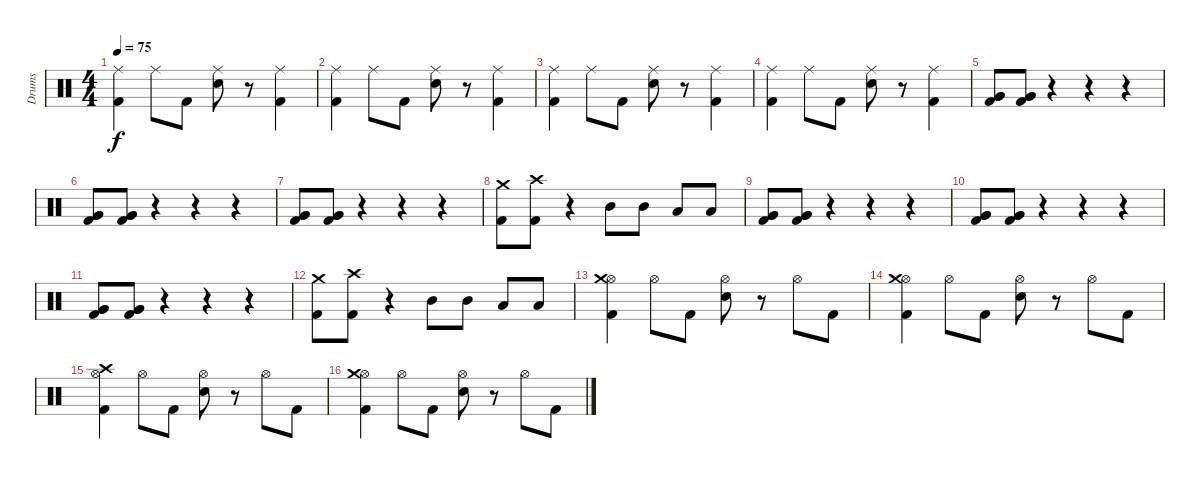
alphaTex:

\track ("Drums" "Drums") {instrument percussion}
\staff {score}
\articulation defaults
\ts (4 4)
\tempo 75
\clef neutral
\ks c
("Ride (middle)" "Kick (hit) 2").4{dy f} "Ride (middle)".8 "Kick (hit) 2".8 ("Ride (middle)" "Snare (hit) 2").8 r.8 ("Ride (middle)" "Kick (hit) 2").4 |
("Ride (middle)" "Kick (hit) 2").4 "Ride (middle)".8 "Kick (hit) 2".8 ("Ride (middle)" "Snare (hit) 2").8 r.8 ("Ride (middle)" "Kick (hit) 2").4 |
("Ride (middle)" "Kick (hit) 2").4 "Ride (middle)".8 "Kick (hit) 2".8 ("Ride (middle)" "Snare (hit) 2").8 r.8 ("Ride (middle)" "Kick (hit) 2").4 |
("Ride (middle)" "Kick (hit) 2").4 "Ride (middle)".8 "Kick (hit) 2".8 ("Ride (middle)" "Snare (hit) 2").8 r.8 ("Ride (middle)" "Kick (hit) 2").4 |
("Very Low Tom (hit)" "Very Low Tom (hit)" "Kick (hit) 2").8 ("Very Low Tom (hit)" "Very Low Tom (hit)" "Kick (hit) 2").8 r.4 r.4 r.4 |
("Very Low Tom (hit)" "Very Low Tom (hit)" "Kick (hit) 2").8 ("Very Low Tom (hit)" "Very Low Tom (hit)" "Kick (hit) 2").8 r.4 r.4 r.4 |
("Very Low Tom (hit)" "Very Low Tom (hit)" "Kick (hit) 2").8 ("Very Low Tom (hit)" "Very Low Tom (hit)" "Kick (hit) 2").8 r.4 r.4 r.4 |
("Crash medium (hit)" "Kick (hit) 2").8 ("Crash high (hit)" "Kick (hit) 2").8 r.4 "Mid Tom (hit)".8 "Mid Tom (hit)".8 "Low Tom (hit)".8 "Low Tom (hit)".8 |
("Very Low Tom (hit)" "Very Low Tom (hit)" "Kick (hit) 2").8 ("Very Low Tom (hit)" "Very Low Tom (hit)" "Kick (hit) 2").8 r.4 r.4 r.4 |
("Very Low Tom (hit)" "Very Low Tom (hit)" "Kick (hit) 2").8 ("Very Low Tom (hit)" "Very Low Tom (hit)" "Kick (hit) 2").8 r.4 r.4 r.4 |
("Very Low Tom (hit)" "Very Low Tom (hit)" "Kick (hit) 2").8 ("Very Low Tom (hit)" "Very Low Tom (hit)" "Kick (hit) 2").8 r.4 r.4 r.4 |
("Crash medium (hit)" "Kick (hit) 2").8 ("Crash high (hit)" "Kick (hit) 2").8 r.4 "Mid Tom (hit)".8 "Mid Tom (hit)".8 "Low Tom (hit)".8 "Low Tom (hit)".8 |
("Hi-Hat (open)" "Crash medium (hit)" "Kick (hit) 2").4 "Hi-Hat (open)".8 "Kick (hit) 2".8 ("Hi-Hat (open)" "Snare (hit) 2").8 r.8 "Hi-Hat (open)".8 "Kick (hit) 2".8 |
("Hi-Hat (open)" "Crash medium (hit)" "Kick (hit) 2").4 "Hi-Hat (open)".8 "Kick (hit) 2".8 ("Hi-Hat (open)" "Snare (hit) 2").8 r.8 "Hi-Hat (open)".8 "Kick (hit) 2".8 |
("Hi-Hat (open)" "Crash high (hit)" "Kick (hit) 2").4 "Hi-Hat (open)".8 "Kick (hit) 2".8 ("Hi-Hat (open)" "Snare (hit) 2").8 r.8 "Hi-Hat (open)".8 "Kick (hit) 2".8 |
("Hi-Hat (open)" "Crash medium (hit)" "Kick (hit) 2").4 "Hi-Hat (open)".8 "Kick (hit) 2".8 ("Hi-Hat (open)" "Snare (hit) 2").8 r.8 "Hi-Hat (open)".8 "Kick (hit) 2".8
